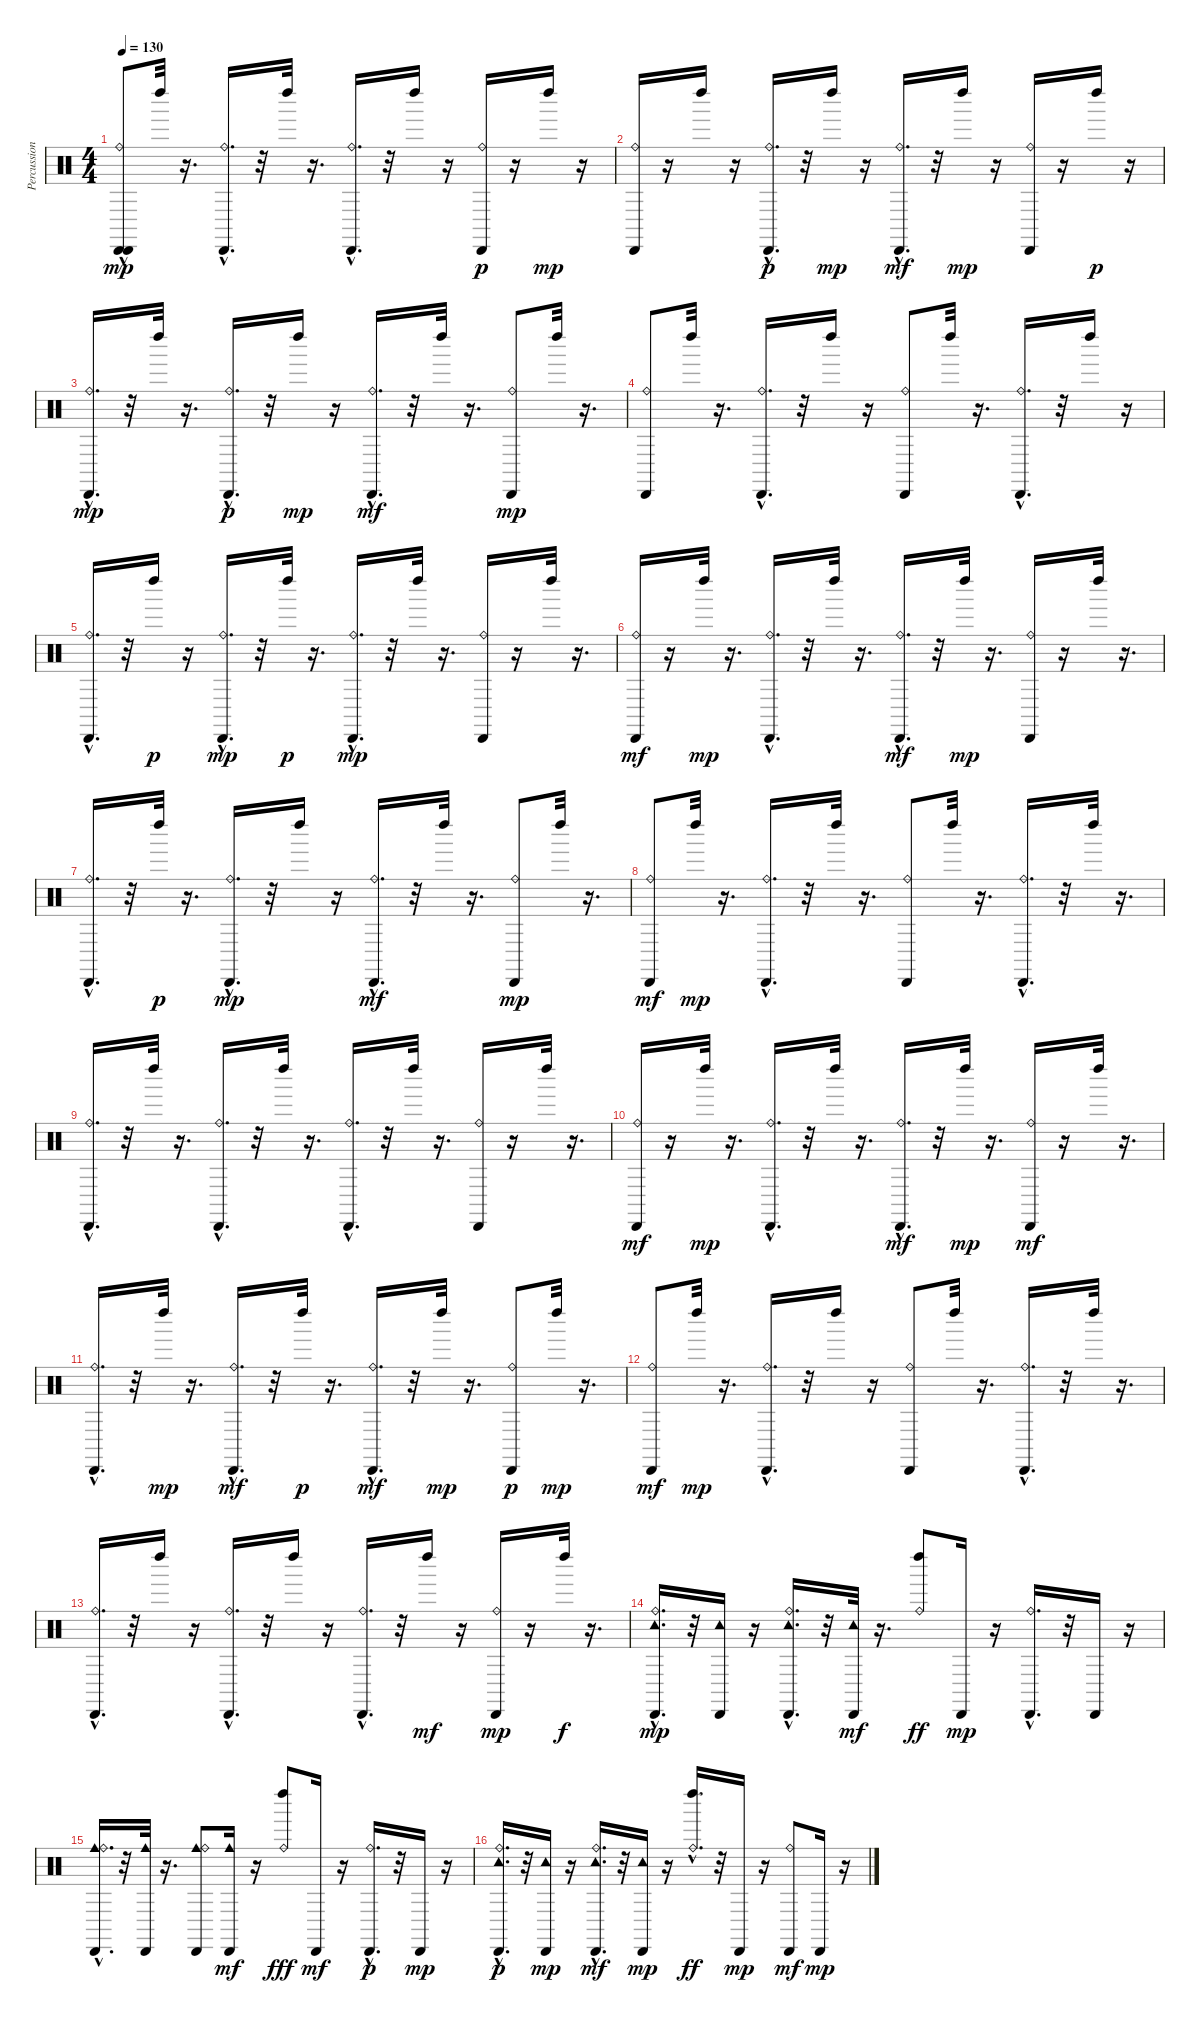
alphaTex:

\track ("Percussion" "Percussion") {instrument percussion}
\staff {score}
\articulation defaults
\ts (4 4)
\tempo 130
\clef neutral
\ks c
("Cabasa (hit)" "Ride (bell)"{hac} "Cabasa (hit)").8{dy mp} "Left Maraca (hit)".32 r.16{d} ("Cabasa (hit)" "Ride (bell)"{hac}).16{d} r.32 "Left Maraca (hit)".32 r.16{d} ("Ride (bell)"{hac} "Cabasa (hit)").16{d} r.32 "Left Maraca (hit)".16 r.16 ("Ride (bell)" "Cabasa (hit)").16{dy p} r.16 "Left Maraca (hit)".16{dy mp} r.16 |
("Ride (bell)" "Cabasa (hit)").16 r.16 "Left Maraca (hit)".16 r.16 ("Ride (bell)"{hac} "Cabasa (hit)").16{d dy p} r.32 "Left Maraca (hit)".16{dy mp} r.16 ("Ride (bell)"{hac} "Cabasa (hit)").16{d dy mf} r.32 "Left Maraca (hit)".16{dy mp} r.16 ("Ride (bell)" "Cabasa (hit)").16 r.16 "Left Maraca (hit)".16{dy p} r.16 |
("Ride (bell)"{hac} "Cabasa (hit)").16{d dy mp} r.32 "Left Maraca (hit)".32 r.16{d} ("Ride (bell)"{hac} "Cabasa (hit)").16{d dy p} r.32 "Left Maraca (hit)".16{dy mp} r.16 ("Ride (bell)"{hac} "Cabasa (hit)").16{d dy mf} r.32 "Left Maraca (hit)".32 r.16{d} ("Ride (bell)" "Cabasa (hit)").8{dy mp} "Left Maraca (hit)".32 r.16{d} |
("Cabasa (hit)" "Ride (bell)").8 "Left Maraca (hit)".32 r.16{d} ("Cabasa (hit)" "Ride (bell)"{hac}).16{d} r.32 "Left Maraca (hit)".16 r.16 ("Cabasa (hit)" "Ride (bell)").8 "Left Maraca (hit)".32 r.16{d} ("Cabasa (hit)" "Ride (bell)"{hac}).16{d} r.32 "Left Maraca (hit)".16 r.16 |
("Cabasa (hit)" "Ride (bell)"{hac}).16{d} r.32 "Left Maraca (hit)".16{dy p} r.16 ("Cabasa (hit)" "Ride (bell)"{hac}).16{d dy mp} r.32 "Left Maraca (hit)".32{dy p} r.16{d} ("Cabasa (hit)" "Ride (bell)"{hac}).16{d dy mp} r.32 "Left Maraca (hit)".32 r.16{d} ("Cabasa (hit)" "Ride (bell)").16 r.16 "Left Maraca (hit)".32 r.16{d} |
("Cabasa (hit)" "Ride (bell)").16{dy mf} r.16 "Left Maraca (hit)".32{dy mp} r.16{d} ("Cabasa (hit)" "Ride (bell)"{hac}).16{d} r.32 "Left Maraca (hit)".32 r.16{d} ("Cabasa (hit)" "Ride (bell)"{hac}).16{d dy mf} r.32 "Left Maraca (hit)".32{dy mp} r.16{d} ("Ride (bell)" "Cabasa (hit)").16 r.16 "Left Maraca (hit)".32 r.16{d} |
("Cabasa (hit)" "Ride (bell)"{hac}).16{d} r.32 "Left Maraca (hit)".32{dy p} r.16{d} ("Cabasa (hit)" "Ride (bell)"{hac}).16{d dy mp} r.32 "Left Maraca (hit)".16 r.16 ("Ride (bell)"{hac} "Cabasa (hit)").16{d dy mf} r.32 "Left Maraca (hit)".32 r.16{d} ("Ride (bell)" "Cabasa (hit)").8{dy mp} "Left Maraca (hit)".32 r.16{d} |
("Ride (bell)" "Cabasa (hit)").8{dy mf} "Left Maraca (hit)".32{dy mp} r.16{d} ("Ride (bell)"{hac} "Cabasa (hit)").16{d} r.32 "Left Maraca (hit)".32 r.16{d} ("Ride (bell)" "Cabasa (hit)").8 "Left Maraca (hit)".32 r.16{d} ("Cabasa (hit)" "Ride (bell)"{hac}).16{d} r.32 "Left Maraca (hit)".32 r.16{d} |
("Cabasa (hit)" "Ride (bell)"{hac}).16{d} r.32 "Left Maraca (hit)".32 r.16{d} ("Ride (bell)"{hac} "Cabasa (hit)").16{d} r.32 "Left Maraca (hit)".32 r.16{d} ("Ride (bell)"{hac} "Cabasa (hit)").16{d} r.32 "Left Maraca (hit)".32 r.16{d} ("Ride (bell)" "Cabasa (hit)").16 r.16 "Left Maraca (hit)".32 r.16{d} |
("Ride (bell)" "Cabasa (hit)").16{dy mf} r.16 "Left Maraca (hit)".32{dy mp} r.16{d} ("Cabasa (hit)" "Ride (bell)"{hac}).16{d} r.32 "Left Maraca (hit)".32 r.16{d} ("Ride (bell)"{hac} "Cabasa (hit)").16{d dy mf} r.32 "Left Maraca (hit)".32{dy mp} r.16{d} ("Ride (bell)" "Cabasa (hit)").16{dy mf} r.16 "Left Maraca (hit)".32 r.16{d} |
("Ride (bell)"{hac} "Cabasa (hit)").16{d} r.32 "Left Maraca (hit)".32{dy mp} r.16{d} ("Ride (bell)"{hac} "Cabasa (hit)").16{d dy mf} r.32 "Left Maraca (hit)".32{dy p} r.16{d} ("Ride (bell)"{hac} "Cabasa (hit)").16{d dy mf} r.32 "Left Maraca (hit)".32{dy mp} r.16{d} ("Ride (bell)" "Cabasa (hit)").8{dy p} "Left Maraca (hit)".32{dy mp} r.16{d} |
("Ride (bell)" "Cabasa (hit)").8{dy mf} "Left Maraca (hit)".32{dy mp} r.16{d} ("Ride (bell)"{hac} "Cabasa (hit)").16{d} r.32 "Left Maraca (hit)".16 r.16 ("Ride (bell)" "Cabasa (hit)").8 "Left Maraca (hit)".32 r.16{d} ("Cabasa (hit)" "Ride (bell)"{hac}).16{d} r.32 "Left Maraca (hit)".32 r.16{d} |
("Cabasa (hit)" "Ride (bell)"{hac}).16{d} r.32 "Left Maraca (hit)".16 r.16 ("Cabasa (hit)" "Ride (bell)"{hac}).16{d} r.32 "Left Maraca (hit)".16 r.16 ("Cabasa (hit)" "Ride (bell)"{hac}).16{d} r.32 "Left Maraca (hit)".16{dy mf} r.16 ("Cabasa (hit)" "Ride (bell)").16{dy mp} r.16 "Left Maraca (hit)".32{dy f} r.16{d} |
("Tambourine (hit)" "Cabasa (hit)" "Ride (bell)"{hac}).16{d dy mp} r.32 ("Tambourine (hit)" "Cabasa (hit)").16 r.16 ("Tambourine (hit)" "Cabasa (hit)" "Ride (bell)"{hac}).16{d} r.32 ("Tambourine (hit)" "Cabasa (hit)").32{dy mf} r.16{d} ("Ride (bell)" "Left Maraca (hit)").8{dy ff} "Cabasa (hit)".16{dy mp} r.16 ("Ride (bell)"{hac} "Cabasa (hit)").16{d} r.32 "Cabasa (hit)".16 r.16 |
("Cowbell medium (hit)" "Cabasa (hit)" "Ride (bell)"{hac}).16{d} r.32 ("Cowbell medium (hit)" "Cabasa (hit)").32 r.16{d} ("Cowbell medium (hit)" "Cabasa (hit)" "Ride (bell)").8 ("Cowbell medium (hit)" "Cabasa (hit)").16{dy mf} r.16 ("Ride (bell)" "Left Maraca (hit)").8{dy fff} "Cabasa (hit)".16{dy mf} r.16 ("Cabasa (hit)" "Ride (bell)"{hac}).16{d dy p} r.32 "Cabasa (hit)".16{dy mp} r.16 |
("Tambourine (hit)" "Cabasa (hit)" "Ride (bell)"{hac}).16{d dy p} r.32 ("Tambourine (hit)" "Cabasa (hit)").16{dy mp} r.16 ("Ride (bell)"{hac} "Tambourine (hit)" "Cabasa (hit)").16{d dy mf} r.32 ("Tambourine (hit)" "Cabasa (hit)").16{dy mp} r.16 ("Ride (bell)"{hac} "Left Maraca (hit)").16{d dy ff} r.32 "Cabasa (hit)".16{dy mp} r.16 ("Ride (bell)" "Cabasa (hit)").8{dy mf} "Cabasa (hit)".16{dy mp} r.16
